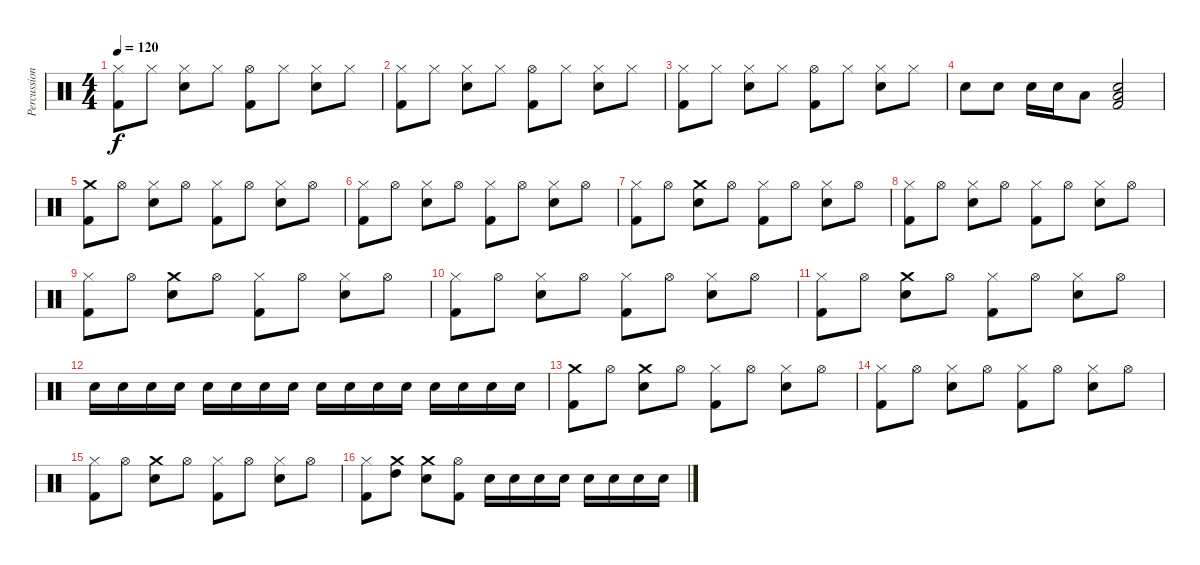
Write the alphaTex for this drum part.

\track ("Percussion" "Percussion") {instrument percussion}
\staff {score}
\articulation defaults
\ts (4 4)
\tempo 120
\clef neutral
\ks c
("Hi-Hat (closed)" "Kick (hit) 2").8{dy f} "Hi-Hat (closed)".8 ("Hi-Hat (closed)" "Snare (hit) 2").8 "Hi-Hat (closed)".8 ("Hi-Hat (open)" "Kick (hit) 2").8 "Hi-Hat (closed)".8 ("Hi-Hat (closed)" "Snare (hit) 2").8 "Hi-Hat (closed)".8 |
("Hi-Hat (closed)" "Kick (hit) 2").8 "Hi-Hat (closed)".8 ("Hi-Hat (closed)" "Snare (hit) 2").8 "Hi-Hat (closed)".8 ("Hi-Hat (open)" "Kick (hit) 2").8 "Hi-Hat (closed)".8 ("Hi-Hat (closed)" "Snare (hit) 2").8 "Hi-Hat (closed)".8 |
("Hi-Hat (closed)" "Kick (hit) 2").8 "Hi-Hat (closed)".8 ("Hi-Hat (closed)" "Snare (hit) 2").8 "Hi-Hat (closed)".8 ("Hi-Hat (open)" "Kick (hit) 2").8 "Hi-Hat (closed)".8 ("Hi-Hat (closed)" "Snare (hit) 2").8 "Hi-Hat (closed)".8 |
"Snare (hit) 2".8 "Snare (hit) 2".8 "Snare (hit) 2".16 "Snare (hit) 2".16 "Low Tom (hit)".8 ("Kick (hit) 2" "Low Floor Tom (hit)" "Snare (hit) 2").2 |
("Crash medium (hit)" "Kick (hit) 2").8 "Hi-Hat (open)".8 ("Hi-Hat (closed)" "Snare (hit) 2").8 "Hi-Hat (open)".8 ("Hi-Hat (closed)" "Kick (hit) 2").8 "Hi-Hat (open)".8 ("Hi-Hat (closed)" "Snare (hit) 2").8 "Hi-Hat (open)".8 |
("Hi-Hat (closed)" "Kick (hit) 2").8 "Hi-Hat (open)".8 ("Hi-Hat (closed)" "Snare (hit) 2").8 "Hi-Hat (open)".8 ("Hi-Hat (closed)" "Kick (hit) 2").8 "Hi-Hat (open)".8 ("Hi-Hat (closed)" "Snare (hit) 2").8 "Hi-Hat (open)".8 |
("Hi-Hat (closed)" "Kick (hit) 2").8 "Hi-Hat (open)".8 ("Crash medium (hit)" "Snare (hit) 2").8 "Hi-Hat (open)".8 ("Hi-Hat (closed)" "Kick (hit) 2").8 "Hi-Hat (open)".8 ("Hi-Hat (closed)" "Snare (hit) 2").8 "Hi-Hat (open)".8 |
("Hi-Hat (closed)" "Kick (hit) 2").8 "Hi-Hat (open)".8 ("Hi-Hat (closed)" "Snare (hit) 2").8 "Hi-Hat (open)".8 ("Hi-Hat (closed)" "Kick (hit) 2").8 "Hi-Hat (open)".8 ("Hi-Hat (closed)" "Snare (hit) 2").8 "Hi-Hat (open)".8 |
("Hi-Hat (closed)" "Kick (hit) 2").8 "Hi-Hat (open)".8 ("Crash medium (hit)" "Snare (hit) 2").8 "Hi-Hat (open)".8 ("Hi-Hat (closed)" "Kick (hit) 2").8 "Hi-Hat (open)".8 ("Hi-Hat (closed)" "Snare (hit) 2").8 "Hi-Hat (open)".8 |
("Hi-Hat (closed)" "Kick (hit) 2").8 "Hi-Hat (open)".8 ("Hi-Hat (closed)" "Snare (hit) 2").8 "Hi-Hat (open)".8 ("Hi-Hat (closed)" "Kick (hit) 2").8 "Hi-Hat (open)".8 ("Hi-Hat (closed)" "Snare (hit) 2").8 "Hi-Hat (open)".8 |
("Hi-Hat (closed)" "Kick (hit) 2").8 "Hi-Hat (open)".8 ("Crash medium (hit)" "Snare (hit) 2").8 "Hi-Hat (open)".8 ("Hi-Hat (closed)" "Kick (hit) 2").8 "Hi-Hat (open)".8 ("Hi-Hat (closed)" "Snare (hit) 2").8 "Hi-Hat (open)".8 |
"Snare (hit) 2".16 "Snare (hit) 2".16 "Snare (hit) 2".16 "Snare (hit) 2".16 "Snare (hit) 2".16 "Snare (hit) 2".16 "Snare (hit) 2".16 "Snare (hit) 2".16 "Snare (hit) 2".16 "Snare (hit) 2".16 "Snare (hit) 2".16 "Snare (hit) 2".16 "Snare (hit) 2".16 "Snare (hit) 2".16 "Snare (hit) 2".16 "Snare (hit) 2".16 |
("Crash medium (hit)" "Kick (hit) 2").8 "Hi-Hat (open)".8 ("Crash medium (hit)" "Snare (hit) 2").8 "Hi-Hat (open)".8 ("Hi-Hat (closed)" "Kick (hit) 2").8 "Hi-Hat (open)".8 ("Hi-Hat (closed)" "Snare (hit) 2").8 "Hi-Hat (open)".8 |
("Hi-Hat (closed)" "Kick (hit) 2").8 "Hi-Hat (open)".8 ("Hi-Hat (closed)" "Snare (hit) 2").8 "Hi-Hat (open)".8 ("Hi-Hat (closed)" "Kick (hit) 2").8 "Hi-Hat (open)".8 ("Hi-Hat (closed)" "Snare (hit) 2").8 "Hi-Hat (open)".8 |
("Hi-Hat (closed)" "Kick (hit) 2").8 "Hi-Hat (open)".8 ("Crash medium (hit)" "Snare (hit) 2").8 "Hi-Hat (open)".8 ("Hi-Hat (closed)" "Kick (hit) 2").8 "Hi-Hat (open)".8 ("Hi-Hat (closed)" "Snare (hit) 2").8 "Hi-Hat (open)".8 |
("Hi-Hat (closed)" "Kick (hit) 2").8 ("Crash medium (hit)" "High Tom (hit)").8 ("Crash medium (hit)" "Snare (hit) 2").8 ("Kick (hit) 2" "Hi-Hat (open)").8 "Snare (hit) 2".16 "Snare (hit) 2".16 "Snare (hit) 2".16 "Snare (hit) 2".16 "Snare (hit) 2".16 "Snare (hit) 2".16 "Snare (hit) 2".16 "Snare (hit) 2".16
